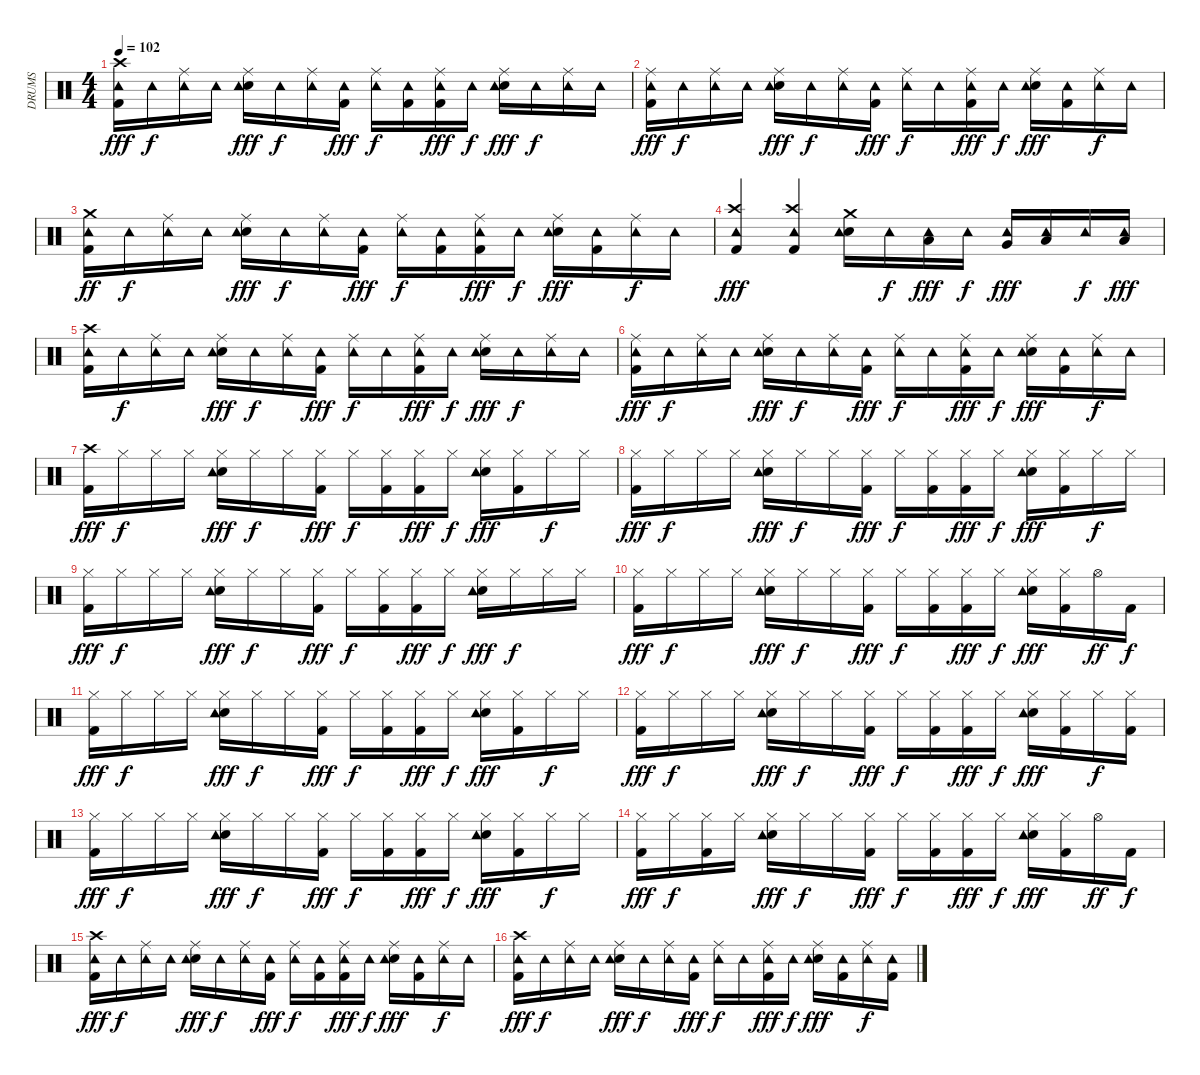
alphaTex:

\track ("DRUMS" "DRUMS") {instrument percussion}
\staff {score}
\articulation defaults
\ts (4 4)
\tempo 102
\clef neutral
\ks c
("Kick (hit) 2" "Crash high (hit)" "Tambourine (hit)").16{dy fff} "Tambourine (hit)".16{dy f} ("Ride (middle)" "Tambourine (hit)").16 "Tambourine (hit)".16 ("Snare (hit) 2" "Ride (middle)" "Tambourine (hit)").16{dy fff} "Tambourine (hit)".16{dy f} ("Ride (middle)" "Tambourine (hit)").16 ("Kick (hit) 2" "Tambourine (hit)").16{dy fff} ("Ride (middle)" "Tambourine (hit)").16{dy f} ("Kick (hit) 2" "Tambourine (hit)").16 ("Ride (middle)" "Kick (hit) 2" "Tambourine (hit)").16{dy fff} "Tambourine (hit)".16{dy f} ("Snare (hit) 2" "Ride (middle)" "Tambourine (hit)").16{dy fff} "Tambourine (hit)".16{dy f} ("Ride (middle)" "Tambourine (hit)").16 "Tambourine (hit)".16 |
("Kick (hit) 2" "Ride (middle)" "Tambourine (hit)").16{dy fff} "Tambourine (hit)".16{dy f} ("Ride (middle)" "Tambourine (hit)").16 "Tambourine (hit)".16 ("Snare (hit) 2" "Ride (middle)" "Tambourine (hit)").16{dy fff} "Tambourine (hit)".16{dy f} ("Ride (middle)" "Tambourine (hit)").16 ("Kick (hit) 2" "Tambourine (hit)").16{dy fff} ("Ride (middle)" "Tambourine (hit)").16{dy f} "Tambourine (hit)".16 ("Ride (middle)" "Kick (hit) 2" "Tambourine (hit)").16{dy fff} "Tambourine (hit)".16{dy f} ("Snare (hit) 2" "Ride (middle)" "Tambourine (hit)").16{dy fff} ("Kick (hit) 2" "Tambourine (hit)").16 ("Ride (middle)" "Tambourine (hit)").16{dy f} "Tambourine (hit)".16 |
("Kick (hit) 2" "Crash medium (hit)" "Tambourine (hit)").16{dy ff} "Tambourine (hit)".16{dy f} ("Ride (middle)" "Tambourine (hit)").16 "Tambourine (hit)".16 ("Snare (hit) 2" "Ride (middle)" "Tambourine (hit)").16{dy fff} "Tambourine (hit)".16{dy f} ("Ride (middle)" "Tambourine (hit)").16 ("Kick (hit) 2" "Tambourine (hit)").16{dy fff} ("Ride (middle)" "Tambourine (hit)").16{dy f} ("Kick (hit) 2" "Tambourine (hit)").16 ("Ride (middle)" "Kick (hit) 2" "Tambourine (hit)").16{dy fff} "Tambourine (hit)".16{dy f} ("Snare (hit) 2" "Ride (middle)" "Tambourine (hit)").16{dy fff} ("Kick (hit) 2" "Tambourine (hit)").16 ("Ride (middle)" "Tambourine (hit)").16{dy f} "Tambourine (hit)".16 |
("Crash high (hit)" "Kick (hit) 2" "Tambourine (hit)").4{dy fff} ("Crash high (hit)" "Kick (hit) 2" "Tambourine (hit)").4{volume 16} ("Crash medium (hit)" "Snare (hit) 2" "Tambourine (hit)").16 "Tambourine (hit)".16{dy f} ("Low Tom (hit)" "Tambourine (hit)").16{dy fff} "Tambourine (hit)".16{dy f} ("Very Low Tom (hit)" "Tambourine (hit)").16{dy fff} ("Low Floor Tom (hit)" "Tambourine (hit)").16 "Tambourine (hit)".16{dy f} ("Low Floor Tom (hit)" "Tambourine (hit)").16{dy fff} |
("Kick (hit) 2" "Crash high (hit)" "Tambourine (hit)").16 "Tambourine (hit)".16{dy f} ("Ride (middle)" "Tambourine (hit)").16 "Tambourine (hit)".16 ("Snare (hit) 2" "Ride (middle)" "Tambourine (hit)").16{dy fff} "Tambourine (hit)".16{dy f} ("Ride (middle)" "Tambourine (hit)").16 ("Kick (hit) 2" "Tambourine (hit)").16{dy fff} ("Ride (middle)" "Tambourine (hit)").16{dy f} "Tambourine (hit)".16 ("Ride (middle)" "Kick (hit) 2" "Tambourine (hit)").16{dy fff} "Tambourine (hit)".16{dy f} ("Snare (hit) 2" "Ride (middle)" "Tambourine (hit)").16{dy fff} "Tambourine (hit)".16{dy f} ("Ride (middle)" "Tambourine (hit)").16 "Tambourine (hit)".16 |
("Kick (hit) 2" "Ride (middle)" "Tambourine (hit)").16{dy fff} "Tambourine (hit)".16{dy f} ("Ride (middle)" "Tambourine (hit)").16 "Tambourine (hit)".16 ("Snare (hit) 2" "Ride (middle)" "Tambourine (hit)").16{dy fff} "Tambourine (hit)".16{dy f} ("Ride (middle)" "Tambourine (hit)").16 ("Kick (hit) 2" "Tambourine (hit)").16{dy fff} ("Ride (middle)" "Tambourine (hit)").16{dy f} "Tambourine (hit)".16 ("Kick (hit) 2" "Ride (middle)" "Tambourine (hit)").16{dy fff} "Tambourine (hit)".16{dy f} ("Snare (hit) 2" "Ride (middle)" "Tambourine (hit)").16{dy fff} ("Kick (hit) 2" "Tambourine (hit)").16 ("Ride (middle)" "Tambourine (hit)").16{dy f} "Tambourine (hit)".16 |
("Crash high (hit)" "Kick (hit) 2").16{dy fff} "Hi-Hat (closed)".16{dy f} "Hi-Hat (closed)".16 "Hi-Hat (closed)".16 ("Hi-Hat (closed)" "Snare (hit) 2" "Tambourine (hit)").16{dy fff} "Hi-Hat (closed)".16{dy f} "Hi-Hat (closed)".16 ("Hi-Hat (closed)" "Kick (hit) 2").16{dy fff} "Hi-Hat (closed)".16{dy f} ("Kick (hit) 2" "Hi-Hat (closed)").16 ("Hi-Hat (closed)" "Kick (hit) 2").16{dy fff} "Hi-Hat (closed)".16{dy f} ("Hi-Hat (closed)" "Snare (hit) 2" "Tambourine (hit)").16{dy fff} ("Hi-Hat (closed)" "Kick (hit) 2").16 "Hi-Hat (closed)".16{dy f} "Hi-Hat (closed)".16 |
("Hi-Hat (closed)" "Kick (hit) 2").16{dy fff} "Hi-Hat (closed)".16{dy f} "Hi-Hat (closed)".16 "Hi-Hat (closed)".16 ("Hi-Hat (closed)" "Snare (hit) 2" "Tambourine (hit)").16{dy fff} "Hi-Hat (closed)".16{dy f} "Hi-Hat (closed)".16 ("Hi-Hat (closed)" "Kick (hit) 2").16{dy fff} "Hi-Hat (closed)".16{dy f} ("Kick (hit) 2" "Hi-Hat (closed)").16 ("Hi-Hat (closed)" "Kick (hit) 2").16{dy fff} "Hi-Hat (closed)".16{dy f} ("Hi-Hat (closed)" "Snare (hit) 2" "Tambourine (hit)").16{dy fff} ("Hi-Hat (closed)" "Kick (hit) 2").16 "Hi-Hat (closed)".16{dy f} "Hi-Hat (closed)".16 |
("Hi-Hat (closed)" "Kick (hit) 2").16{dy fff} "Hi-Hat (closed)".16{dy f} "Hi-Hat (closed)".16 "Hi-Hat (closed)".16 ("Hi-Hat (closed)" "Snare (hit) 2" "Tambourine (hit)").16{dy fff} "Hi-Hat (closed)".16{dy f} "Hi-Hat (closed)".16 ("Hi-Hat (closed)" "Kick (hit) 2").16{dy fff} "Hi-Hat (closed)".16{dy f} ("Kick (hit) 2" "Hi-Hat (closed)").16 ("Hi-Hat (closed)" "Kick (hit) 2").16{dy fff} "Hi-Hat (closed)".16{dy f} ("Hi-Hat (closed)" "Snare (hit) 2" "Tambourine (hit)").16{dy fff} "Hi-Hat (closed)".16{dy f} "Hi-Hat (closed)".16 "Hi-Hat (closed)".16 |
("Hi-Hat (closed)" "Kick (hit) 2").16{dy fff} "Hi-Hat (closed)".16{dy f} "Hi-Hat (closed)".16 "Hi-Hat (closed)".16 ("Hi-Hat (closed)" "Snare (hit) 2" "Tambourine (hit)").16{dy fff} "Hi-Hat (closed)".16{dy f} "Hi-Hat (closed)".16 ("Hi-Hat (closed)" "Kick (hit) 2").16{dy fff} "Hi-Hat (closed)".16{dy f} ("Kick (hit) 2" "Hi-Hat (closed)").16 ("Hi-Hat (closed)" "Kick (hit) 2").16{dy fff} "Hi-Hat (closed)".16{dy f} ("Hi-Hat (closed)" "Snare (hit) 2" "Tambourine (hit)").16{dy fff} ("Hi-Hat (closed)" "Kick (hit) 2").16 "Hi-Hat (open)".16{dy ff} "Kick (hit) 2".16{dy f} |
("Hi-Hat (closed)" "Kick (hit) 2").16{dy fff} "Hi-Hat (closed)".16{dy f} "Hi-Hat (closed)".16 "Hi-Hat (closed)".16 ("Hi-Hat (closed)" "Snare (hit) 2" "Tambourine (hit)").16{dy fff} "Hi-Hat (closed)".16{dy f} "Hi-Hat (closed)".16 ("Hi-Hat (closed)" "Kick (hit) 2").16{dy fff} "Hi-Hat (closed)".16{dy f} ("Kick (hit) 2" "Hi-Hat (closed)").16 ("Hi-Hat (closed)" "Kick (hit) 2").16{dy fff} "Hi-Hat (closed)".16{dy f} ("Hi-Hat (closed)" "Snare (hit) 2" "Tambourine (hit)").16{dy fff} ("Hi-Hat (closed)" "Kick (hit) 2").16 "Hi-Hat (closed)".16{dy f} "Hi-Hat (closed)".16 |
("Hi-Hat (closed)" "Kick (hit) 2").16{dy fff} "Hi-Hat (closed)".16{dy f} "Hi-Hat (closed)".16 "Hi-Hat (closed)".16 ("Hi-Hat (closed)" "Snare (hit) 2" "Tambourine (hit)").16{dy fff} "Hi-Hat (closed)".16{dy f} "Hi-Hat (closed)".16 ("Hi-Hat (closed)" "Kick (hit) 2").16{dy fff} "Hi-Hat (closed)".16{dy f} ("Kick (hit) 2" "Hi-Hat (closed)").16 ("Hi-Hat (closed)" "Kick (hit) 2").16{dy fff} "Hi-Hat (closed)".16{dy f} ("Hi-Hat (closed)" "Snare (hit) 2" "Tambourine (hit)").16{dy fff} ("Hi-Hat (closed)" "Kick (hit) 2").16 "Hi-Hat (closed)".16{dy f} ("Kick (hit) 2" "Hi-Hat (closed)").16 |
("Hi-Hat (closed)" "Kick (hit) 2").16{dy fff} "Hi-Hat (closed)".16{dy f} "Hi-Hat (closed)".16 "Hi-Hat (closed)".16 ("Hi-Hat (closed)" "Snare (hit) 2" "Tambourine (hit)").16{dy fff} "Hi-Hat (closed)".16{dy f} "Hi-Hat (closed)".16 ("Hi-Hat (closed)" "Kick (hit) 2").16{dy fff} "Hi-Hat (closed)".16{dy f} ("Kick (hit) 2" "Hi-Hat (closed)").16 ("Hi-Hat (closed)" "Kick (hit) 2").16{dy fff} "Hi-Hat (closed)".16{dy f} ("Hi-Hat (closed)" "Snare (hit) 2" "Tambourine (hit)").16{dy fff} ("Hi-Hat (closed)" "Kick (hit) 2").16 "Hi-Hat (closed)".16{dy f} "Hi-Hat (closed)".16 |
("Hi-Hat (closed)" "Kick (hit) 2").16{dy fff} "Hi-Hat (closed)".16{dy f} ("Kick (hit) 2" "Hi-Hat (closed)").16 "Hi-Hat (closed)".16 ("Hi-Hat (closed)" "Snare (hit) 2" "Tambourine (hit)").16{dy fff} "Hi-Hat (closed)".16{dy f} "Hi-Hat (closed)".16 ("Hi-Hat (closed)" "Kick (hit) 2").16{dy fff} "Hi-Hat (closed)".16{dy f} ("Kick (hit) 2" "Hi-Hat (closed)").16 ("Hi-Hat (closed)" "Kick (hit) 2").16{dy fff} "Hi-Hat (closed)".16{dy f} ("Hi-Hat (closed)" "Snare (hit) 2" "Tambourine (hit)").16{dy fff} ("Hi-Hat (closed)" "Kick (hit) 2").16 "Hi-Hat (open)".16{dy ff} "Kick (hit) 2".16{dy f} |
("Kick (hit) 2" "Crash high (hit)" "Tambourine (hit)").16{dy fff} "Tambourine (hit)".16{dy f} ("Ride (middle)" "Tambourine (hit)").16 "Tambourine (hit)".16 ("Snare (hit) 2" "Ride (middle)" "Tambourine (hit)").16{dy fff} "Tambourine (hit)".16{dy f} ("Ride (middle)" "Tambourine (hit)").16 ("Kick (hit) 2" "Tambourine (hit)").16{dy fff} ("Ride (middle)" "Tambourine (hit)").16{dy f} ("Kick (hit) 2" "Tambourine (hit)").16 ("Ride (middle)" "Kick (hit) 2" "Tambourine (hit)").16{dy fff} "Tambourine (hit)".16{dy f} ("Snare (hit) 2" "Ride (middle)" "Tambourine (hit)").16{dy fff} ("Kick (hit) 2" "Tambourine (hit)").16 ("Ride (middle)" "Tambourine (hit)").16{dy f} "Tambourine (hit)".16 |
("Kick (hit) 2" "Crash high (hit)" "Tambourine (hit)").16{dy fff} "Tambourine (hit)".16{dy f} ("Ride (middle)" "Tambourine (hit)").16 "Tambourine (hit)".16 ("Snare (hit) 2" "Ride (middle)" "Tambourine (hit)").16{dy fff} "Tambourine (hit)".16{dy f} ("Ride (middle)" "Tambourine (hit)").16 ("Kick (hit) 2" "Tambourine (hit)").16{dy fff} ("Ride (middle)" "Tambourine (hit)").16{dy f} "Tambourine (hit)".16 ("Kick (hit) 2" "Ride (middle)" "Tambourine (hit)").16{dy fff} "Tambourine (hit)".16{dy f} ("Snare (hit) 2" "Ride (middle)" "Tambourine (hit)").16{dy fff} ("Kick (hit) 2" "Tambourine (hit)").16 ("Ride (middle)" "Tambourine (hit)").16{dy f} ("Kick (hit) 2" "Tambourine (hit)").16
